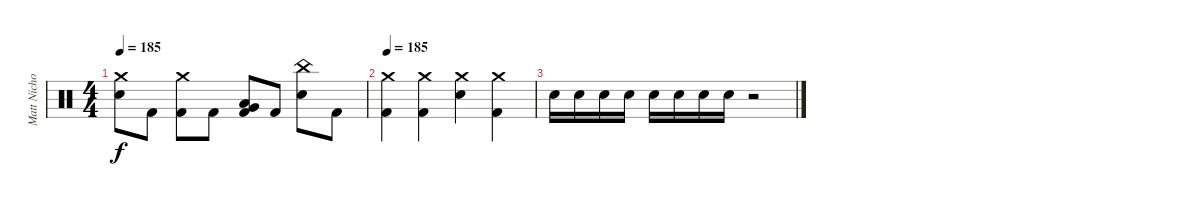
\track ("Matt Nichols" "Matt Nicho") {instrument percussion}
\staff {score}
\articulation defaults
\ts (4 4)
\tempo 185
\clef neutral
\ks c
("Crash medium (hit)" "Electric Snare (hit)").8{dy f} "Kick (hit) 2".8 ("Crash medium (hit)" "Kick (hit) 2").8 "Kick (hit) 2".8 ("Low Floor Tom (hit)" "Very Low Tom (hit)" "Kick (hit) 2").8 "Kick (hit) 2".8 ("China (hit)" "Electric Snare (hit)").8 "Kick (hit) 2".8 |
\tempo 185
("Crash medium (hit)" "Kick (hit) 2").4 ("Crash medium (hit)" "Kick (hit) 2").4 ("Crash medium (hit)" "Electric Snare (hit)").4 ("Crash medium (hit)" "Kick (hit) 2").4 |
"Electric Snare (hit)".16 "Electric Snare (hit)".16 "Electric Snare (hit)".16 "Electric Snare (hit)".16 "Electric Snare (hit)".16 "Electric Snare (hit)".16 "Electric Snare (hit)".16 "Electric Snare (hit)".16 r.2
